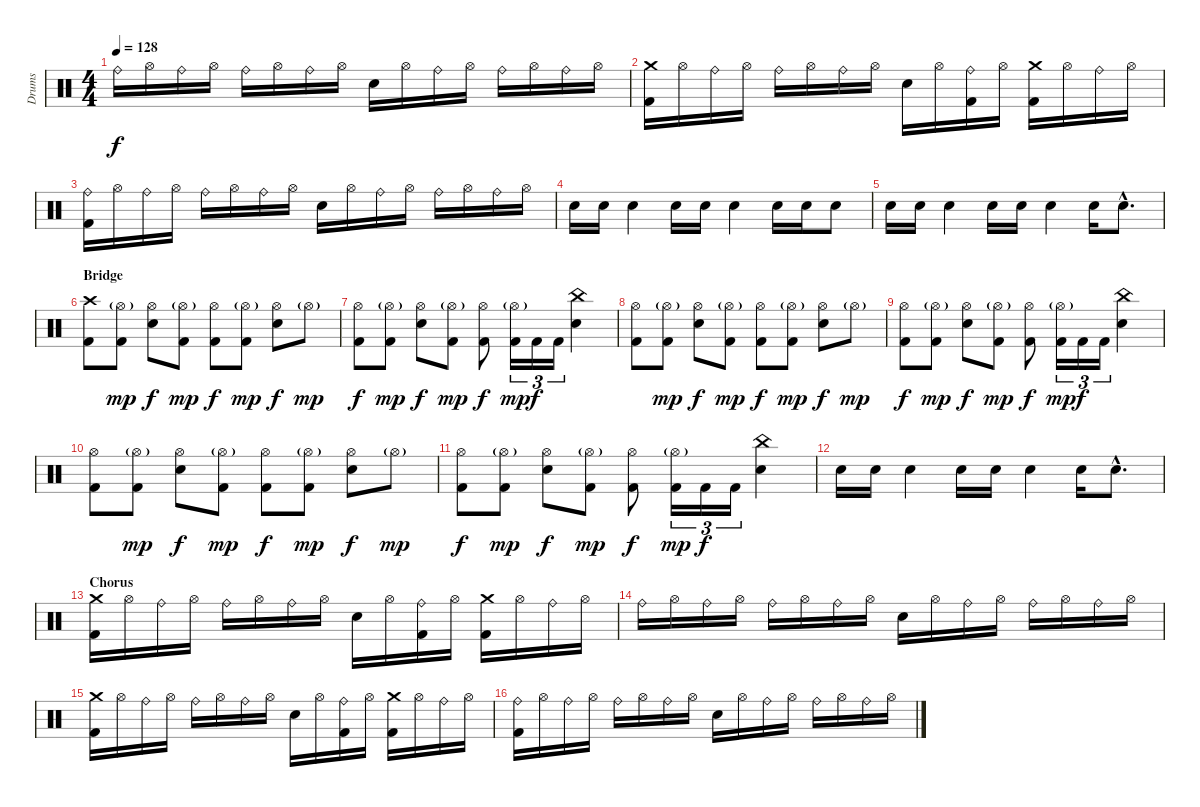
\track ("Drums" "Drums") {instrument percussion}
\staff {score}
\articulation defaults
\ts (4 4)
\tempo 128
\clef neutral
\ks c "Ride (bell)".16{dy f} "Hi-Hat (open)".16 "Ride (bell)".16 "Hi-Hat (open)".16 "Ride (bell)".16 "Hi-Hat (open)".16 "Ride (bell)".16 "Hi-Hat (open)".16 "Snare (hit) 2".16 "Hi-Hat (open)".16 "Ride (bell)".16 "Hi-Hat (open)".16 "Ride (bell)".16 "Hi-Hat (open)".16 "Ride (bell)".16 "Hi-Hat (open)".16
|
("Crash medium (hit)" "Kick (hit) 2").16 "Hi-Hat (open)".16 "Ride (bell)".16 "Hi-Hat (open)".16 "Ride (bell)".16 "Hi-Hat (open)".16 "Ride (bell)".16 "Hi-Hat (open)".16 "Snare (hit) 2".16 "Hi-Hat (open)".16 ("Ride (bell)" "Kick (hit) 2").16 "Hi-Hat (open)".16 ("Crash medium (hit)" "Kick (hit) 2").16 "Hi-Hat (open)".16 "Ride (bell)".16 "Hi-Hat (open)".16 |
("Ride (bell)" "Kick (hit) 2").16 "Hi-Hat (open)".16 "Ride (bell)".16 "Hi-Hat (open)".16 "Ride (bell)".16 "Hi-Hat (open)".16 "Ride (bell)".16 "Hi-Hat (open)".16 "Snare (hit) 2".16 "Hi-Hat (open)".16 "Ride (bell)".16 "Hi-Hat (open)".16 "Ride (bell)".16 "Hi-Hat (open)".16 "Ride (bell)".16 "Hi-Hat (open)".16 |
"Snare (hit) 2".16 "Snare (hit) 2".16 "Snare (hit) 2".4 "Snare (hit) 2".16 "Snare (hit) 2".16 "Snare (hit) 2".4 "Snare (hit) 2".16 "Snare (hit) 2".16 "Snare (hit) 2".8 |
"Snare (hit) 2".16 "Snare (hit) 2".16 "Snare (hit) 2".4 "Snare (hit) 2".16 "Snare (hit) 2".16 "Snare (hit) 2".4 "Snare (hit) 2".16 "Snare (hit) 2"{hac}.8{d} |
\section ("" "Bridge")
("Crash high (hit)" "Kick (hit) 2").8 ("Hi-Hat (open)"{g} "Kick (hit) 2").8{dy mp} ("Hi-Hat (open)" "Snare (hit) 2").8{dy f} ("Hi-Hat (open)"{g} "Kick (hit) 2").8{dy mp} ("Hi-Hat (open)" "Kick (hit) 2").8{dy f} ("Hi-Hat (open)"{g} "Kick (hit) 2").8{dy mp} ("Hi-Hat (open)" "Snare (hit) 2").8{dy f} "Hi-Hat (open)"{g}.8{dy mp} |
("Hi-Hat (open)" "Kick (hit) 2").8{dy f} ("Hi-Hat (open)"{g} "Kick (hit) 2").8{dy mp} ("Hi-Hat (open)" "Snare (hit) 2").8{dy f} ("Hi-Hat (open)"{g} "Kick (hit) 2").8{dy mp} ("Hi-Hat (open)" "Kick (hit) 2").8{dy f} ("Hi-Hat (open)"{g} "Kick (hit) 2").16{tu (3 2) dy mp} "Kick (hit) 2".16{tu (3 2) dy f} "Kick (hit) 2".16{tu (3 2)} ("China (hit)" "Snare (hit) 2").4 |
("Hi-Hat (open)" "Kick (hit) 2").8 ("Hi-Hat (open)"{g} "Kick (hit) 2").8{dy mp} ("Hi-Hat (open)" "Snare (hit) 2").8{dy f} ("Hi-Hat (open)"{g} "Kick (hit) 2").8{dy mp} ("Hi-Hat (open)" "Kick (hit) 2").8{dy f} ("Hi-Hat (open)"{g} "Kick (hit) 2").8{dy mp} ("Hi-Hat (open)" "Snare (hit) 2").8{dy f} "Hi-Hat (open)"{g}.8{dy mp} |
("Hi-Hat (open)" "Kick (hit) 2").8{dy f} ("Hi-Hat (open)"{g} "Kick (hit) 2").8{dy mp} ("Hi-Hat (open)" "Snare (hit) 2").8{dy f} ("Hi-Hat (open)"{g} "Kick (hit) 2").8{dy mp} ("Hi-Hat (open)" "Kick (hit) 2").8{dy f} ("Hi-Hat (open)"{g} "Kick (hit) 2").16{tu (3 2) dy mp} "Kick (hit) 2".16{tu (3 2) dy f} "Kick (hit) 2".16{tu (3 2)} ("China (hit)" "Snare (hit) 2").4 |
("Hi-Hat (open)" "Kick (hit) 2").8 ("Hi-Hat (open)"{g} "Kick (hit) 2").8{dy mp} ("Hi-Hat (open)" "Snare (hit) 2").8{dy f} ("Hi-Hat (open)"{g} "Kick (hit) 2").8{dy mp} ("Hi-Hat (open)" "Kick (hit) 2").8{dy f} ("Hi-Hat (open)"{g} "Kick (hit) 2").8{dy mp} ("Hi-Hat (open)" "Snare (hit) 2").8{dy f} "Hi-Hat (open)"{g}.8{dy mp} |
("Hi-Hat (open)" "Kick (hit) 2").8{dy f} ("Hi-Hat (open)"{g} "Kick (hit) 2").8{dy mp} ("Hi-Hat (open)" "Snare (hit) 2").8{dy f} ("Hi-Hat (open)"{g} "Kick (hit) 2").8{dy mp} ("Hi-Hat (open)" "Kick (hit) 2").8{dy f} ("Hi-Hat (open)"{g} "Kick (hit) 2").16{tu (3 2) dy mp} "Kick (hit) 2".16{tu (3 2) dy f} "Kick (hit) 2".16{tu (3 2)} ("China (hit)" "Snare (hit) 2").4 |
"Snare (hit) 2".16 "Snare (hit) 2".16 "Snare (hit) 2".4 "Snare (hit) 2".16 "Snare (hit) 2".16 "Snare (hit) 2".4 "Snare (hit) 2".16 "Snare (hit) 2"{hac}.8{d} |
\section ("" "Chorus")
("Crash medium (hit)" "Kick (hit) 2").16 "Hi-Hat (open)".16 "Ride (bell)".16 "Hi-Hat (open)".16 "Ride (bell)".16 "Hi-Hat (open)".16 "Ride (bell)".16 "Hi-Hat (open)".16 "Snare (hit) 2".16 "Hi-Hat (open)".16 ("Ride (bell)" "Kick (hit) 2").16 "Hi-Hat (open)".16 ("Crash medium (hit)" "Kick (hit) 2").16 "Hi-Hat (open)".16 "Ride (bell)".16 "Hi-Hat (open)".16 |
"Ride (bell)".16 "Hi-Hat (open)".16 "Ride (bell)".16 "Hi-Hat (open)".16 "Ride (bell)".16 "Hi-Hat (open)".16 "Ride (bell)".16 "Hi-Hat (open)".16 "Snare (hit) 2".16 "Hi-Hat (open)".16 "Ride (bell)".16 "Hi-Hat (open)".16 "Ride (bell)".16 "Hi-Hat (open)".16 "Ride (bell)".16 "Hi-Hat (open)".16 |
("Crash medium (hit)" "Kick (hit) 2").16 "Hi-Hat (open)".16 "Ride (bell)".16 "Hi-Hat (open)".16 "Ride (bell)".16 "Hi-Hat (open)".16 "Ride (bell)".16 "Hi-Hat (open)".16 "Snare (hit) 2".16 "Hi-Hat (open)".16 ("Ride (bell)" "Kick (hit) 2").16 "Hi-Hat (open)".16 ("Crash medium (hit)" "Kick (hit) 2").16 "Hi-Hat (open)".16 "Ride (bell)".16 "Hi-Hat (open)".16 |
("Ride (bell)" "Kick (hit) 2").16 "Hi-Hat (open)".16 "Ride (bell)".16 "Hi-Hat (open)".16 "Ride (bell)".16 "Hi-Hat (open)".16 "Ride (bell)".16 "Hi-Hat (open)".16 "Snare (hit) 2".16 "Hi-Hat (open)".16 "Ride (bell)".16 "Hi-Hat (open)".16 "Ride (bell)".16 "Hi-Hat (open)".16 "Ride (bell)".16 "Hi-Hat (open)".16
